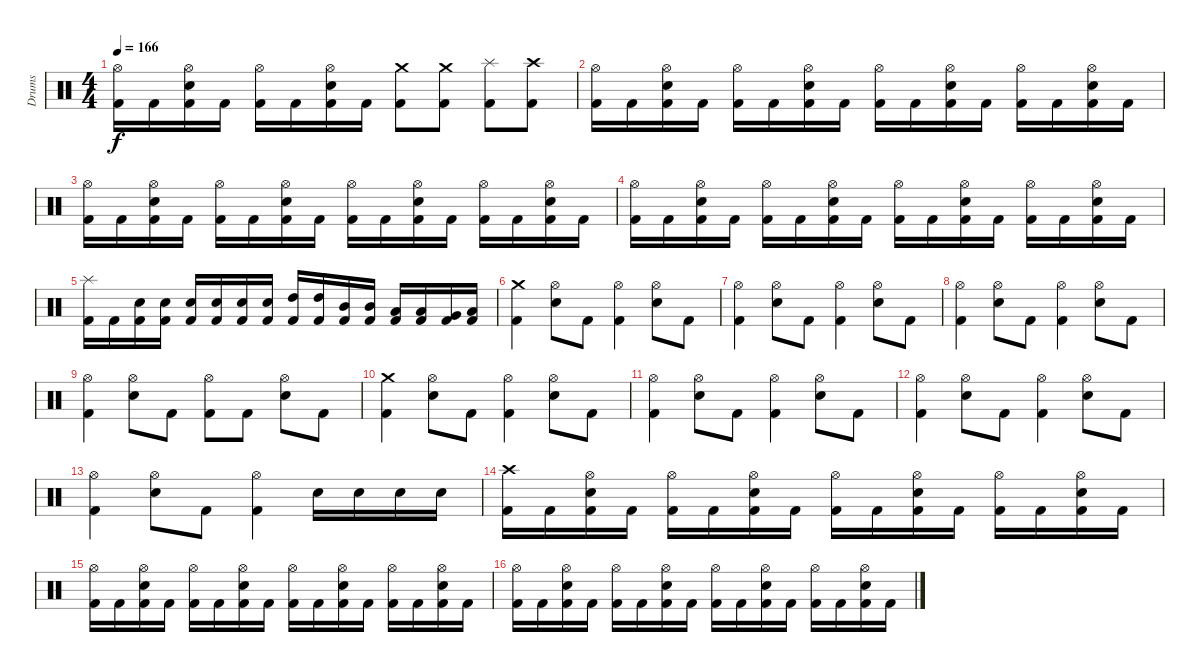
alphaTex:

\track ("Drums" "Drums") {instrument percussion}
\staff {score}
\articulation defaults
\ts (4 4)
\tempo 166
\clef neutral
\ks c
("Kick (hit) 2" "Hi-Hat (open)").16{dy f} "Kick (hit) 2".16 ("Kick (hit) 2" "Electric Snare (hit)" "Hi-Hat (open)").16 "Kick (hit) 2".16 ("Kick (hit) 2" "Hi-Hat (open)").16 "Kick (hit) 2".16 ("Kick (hit) 2" "Electric Snare (hit)" "Hi-Hat (open)").16 "Kick (hit) 2".16 ("Kick (hit) 2" "Crash medium (hit)").8 ("Kick (hit) 2" "Crash medium (hit)").8 ("Kick (hit) 2" "Splash (hit)").8 ("Kick (hit) 2" "Crash high (hit)").8 |
("Kick (hit) 2" "Hi-Hat (open)").16 "Kick (hit) 2".16 ("Kick (hit) 2" "Electric Snare (hit)" "Hi-Hat (open)").16 "Kick (hit) 2".16 ("Kick (hit) 2" "Hi-Hat (open)").16 "Kick (hit) 2".16 ("Kick (hit) 2" "Electric Snare (hit)" "Hi-Hat (open)").16 "Kick (hit) 2".16 ("Kick (hit) 2" "Hi-Hat (open)").16 "Kick (hit) 2".16 ("Kick (hit) 2" "Electric Snare (hit)" "Hi-Hat (open)").16 "Kick (hit) 2".16 ("Kick (hit) 2" "Hi-Hat (open)").16 "Kick (hit) 2".16 ("Kick (hit) 2" "Electric Snare (hit)" "Hi-Hat (open)").16 "Kick (hit) 2".16 |
("Kick (hit) 2" "Hi-Hat (open)").16 "Kick (hit) 2".16 ("Kick (hit) 2" "Electric Snare (hit)" "Hi-Hat (open)").16 "Kick (hit) 2".16 ("Kick (hit) 2" "Hi-Hat (open)").16 "Kick (hit) 2".16 ("Kick (hit) 2" "Electric Snare (hit)" "Hi-Hat (open)").16 "Kick (hit) 2".16 ("Kick (hit) 2" "Hi-Hat (open)").16 "Kick (hit) 2".16 ("Kick (hit) 2" "Electric Snare (hit)" "Hi-Hat (open)").16 "Kick (hit) 2".16 ("Kick (hit) 2" "Hi-Hat (open)").16 "Kick (hit) 2".16 ("Kick (hit) 2" "Electric Snare (hit)" "Hi-Hat (open)").16 "Kick (hit) 2".16 |
("Kick (hit) 2" "Hi-Hat (open)").16 "Kick (hit) 2".16 ("Kick (hit) 2" "Electric Snare (hit)" "Hi-Hat (open)").16 "Kick (hit) 2".16 ("Kick (hit) 2" "Hi-Hat (open)").16 "Kick (hit) 2".16 ("Kick (hit) 2" "Electric Snare (hit)" "Hi-Hat (open)").16 "Kick (hit) 2".16 ("Kick (hit) 2" "Hi-Hat (open)").16 "Kick (hit) 2".16 ("Kick (hit) 2" "Electric Snare (hit)" "Hi-Hat (open)").16 "Kick (hit) 2".16 ("Kick (hit) 2" "Hi-Hat (open)").16 "Kick (hit) 2".16 ("Kick (hit) 2" "Electric Snare (hit)" "Hi-Hat (open)").16 "Kick (hit) 2".16 |
("Kick (hit) 2" "Splash (hit)").16 "Kick (hit) 2".16 ("Kick (hit) 2" "Electric Snare (hit)").16 ("Kick (hit) 2" "Electric Snare (hit)").16 ("Kick (hit) 2" "Electric Snare (hit)").16 ("Kick (hit) 2" "Electric Snare (hit)").16 ("Kick (hit) 2" "Electric Snare (hit)").16 ("Kick (hit) 2" "Electric Snare (hit)").16 ("Kick (hit) 2" "High Tom (hit)").16 ("Kick (hit) 2" "High Tom (hit)").16 ("Kick (hit) 2" "Mid Tom (hit)").16 ("Kick (hit) 2" "Mid Tom (hit)").16 ("Kick (hit) 2" "Low Tom (hit)").16 ("Kick (hit) 2" "Low Tom (hit)").16 ("Kick (hit) 2" "Very Low Tom (hit)").16 ("Kick (hit) 2" "Low Floor Tom (hit)").16 |
\section ("" "")
("Kick (hit) 2" "Crash medium (hit)").4 ("Electric Snare (hit)" "Hi-Hat (open)").8 "Kick (hit) 2".8 ("Kick (hit) 2" "Hi-Hat (open)").4 ("Electric Snare (hit)" "Hi-Hat (open)").8 "Kick (hit) 2".8 |
("Kick (hit) 2" "Hi-Hat (open)").4 ("Electric Snare (hit)" "Hi-Hat (open)").8 "Kick (hit) 2".8 ("Kick (hit) 2" "Hi-Hat (open)").4 ("Electric Snare (hit)" "Hi-Hat (open)").8 "Kick (hit) 2".8 |
("Kick (hit) 2" "Hi-Hat (open)").4 ("Electric Snare (hit)" "Hi-Hat (open)").8 "Kick (hit) 2".8 ("Kick (hit) 2" "Hi-Hat (open)").4 ("Electric Snare (hit)" "Hi-Hat (open)").8 "Kick (hit) 2".8 |
("Kick (hit) 2" "Hi-Hat (open)").4 ("Electric Snare (hit)" "Hi-Hat (open)").8 "Kick (hit) 2".8 ("Kick (hit) 2" "Hi-Hat (open)").8 "Kick (hit) 2".8 ("Electric Snare (hit)" "Hi-Hat (open)").8 "Kick (hit) 2".8 |
("Kick (hit) 2" "Crash medium (hit)").4 ("Electric Snare (hit)" "Hi-Hat (open)").8 "Kick (hit) 2".8 ("Kick (hit) 2" "Hi-Hat (open)").4 ("Electric Snare (hit)" "Hi-Hat (open)").8 "Kick (hit) 2".8 |
("Kick (hit) 2" "Hi-Hat (open)").4 ("Electric Snare (hit)" "Hi-Hat (open)").8 "Kick (hit) 2".8 ("Kick (hit) 2" "Hi-Hat (open)").4 ("Electric Snare (hit)" "Hi-Hat (open)").8 "Kick (hit) 2".8 |
("Kick (hit) 2" "Hi-Hat (open)").4 ("Electric Snare (hit)" "Hi-Hat (open)").8 "Kick (hit) 2".8 ("Kick (hit) 2" "Hi-Hat (open)").4 ("Electric Snare (hit)" "Hi-Hat (open)").8 "Kick (hit) 2".8 |
("Kick (hit) 2" "Hi-Hat (open)").4 ("Electric Snare (hit)" "Hi-Hat (open)").8 "Kick (hit) 2".8 ("Kick (hit) 2" "Hi-Hat (open)").4 "Electric Snare (hit)".16 "Electric Snare (hit)".16 "Electric Snare (hit)".16 "Electric Snare (hit)".16 |
\section ("" "")
("Kick (hit) 2" "Crash high (hit)").16 "Kick (hit) 2".16 ("Kick (hit) 2" "Electric Snare (hit)" "Hi-Hat (open)").16 "Kick (hit) 2".16 ("Kick (hit) 2" "Hi-Hat (open)").16 "Kick (hit) 2".16 ("Kick (hit) 2" "Electric Snare (hit)" "Hi-Hat (open)").16 "Kick (hit) 2".16 ("Kick (hit) 2" "Hi-Hat (open)").16 "Kick (hit) 2".16 ("Kick (hit) 2" "Electric Snare (hit)" "Hi-Hat (open)").16 "Kick (hit) 2".16 ("Kick (hit) 2" "Hi-Hat (open)").16 "Kick (hit) 2".16 ("Kick (hit) 2" "Electric Snare (hit)" "Hi-Hat (open)").16 "Kick (hit) 2".16 |
("Kick (hit) 2" "Hi-Hat (open)").16 "Kick (hit) 2".16 ("Kick (hit) 2" "Electric Snare (hit)" "Hi-Hat (open)").16 "Kick (hit) 2".16 ("Kick (hit) 2" "Hi-Hat (open)").16 "Kick (hit) 2".16 ("Kick (hit) 2" "Electric Snare (hit)" "Hi-Hat (open)").16 "Kick (hit) 2".16 ("Kick (hit) 2" "Hi-Hat (open)").16 "Kick (hit) 2".16 ("Kick (hit) 2" "Electric Snare (hit)" "Hi-Hat (open)").16 "Kick (hit) 2".16 ("Kick (hit) 2" "Hi-Hat (open)").16 "Kick (hit) 2".16 ("Kick (hit) 2" "Electric Snare (hit)" "Hi-Hat (open)").16 "Kick (hit) 2".16 |
("Kick (hit) 2" "Hi-Hat (open)").16 "Kick (hit) 2".16 ("Kick (hit) 2" "Electric Snare (hit)" "Hi-Hat (open)").16 "Kick (hit) 2".16 ("Kick (hit) 2" "Hi-Hat (open)").16 "Kick (hit) 2".16 ("Kick (hit) 2" "Electric Snare (hit)" "Hi-Hat (open)").16 "Kick (hit) 2".16 ("Kick (hit) 2" "Hi-Hat (open)").16 "Kick (hit) 2".16 ("Kick (hit) 2" "Electric Snare (hit)" "Hi-Hat (open)").16 "Kick (hit) 2".16 ("Kick (hit) 2" "Hi-Hat (open)").16 "Kick (hit) 2".16 ("Kick (hit) 2" "Electric Snare (hit)" "Hi-Hat (open)").16 "Kick (hit) 2".16
